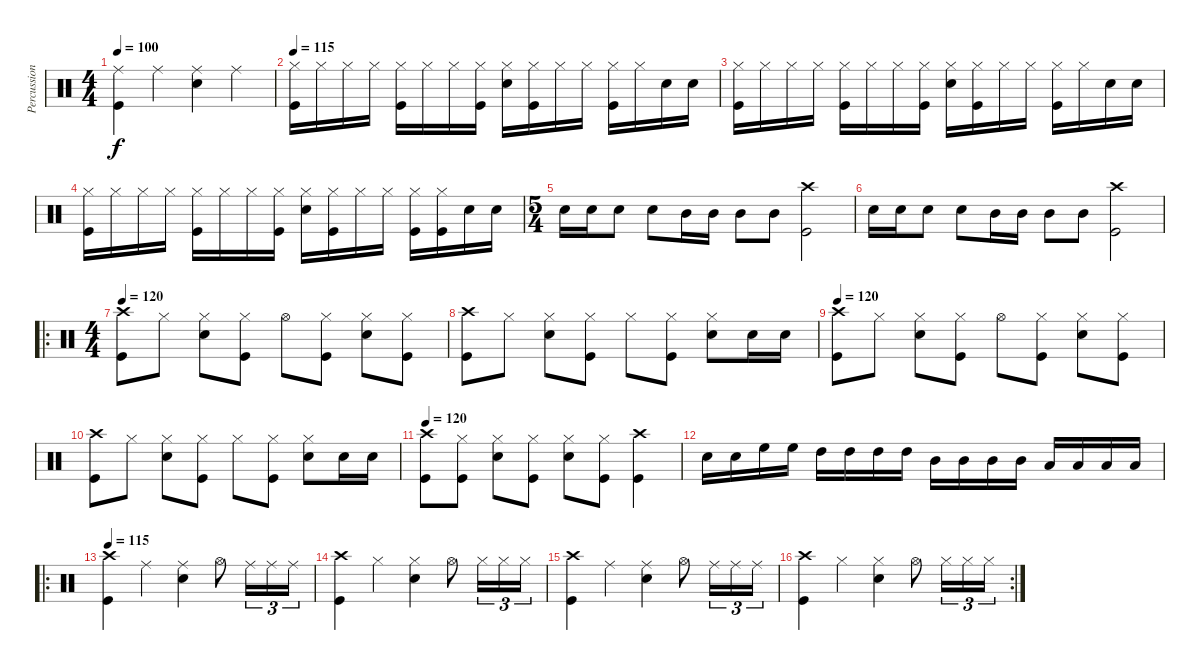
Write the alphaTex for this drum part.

\track ("Percussion" "Percussion") {instrument percussion}
\staff {score}
\articulation defaults
\ts (4 4)
\tempo 100
\clef neutral
\ks c
("Ride (middle)" "Kick (hit)").4{dy f} "Ride (middle)".4 ("Ride (middle)" "Snare (hit) 2").4 "Ride (middle)".4 |
\tempo 115
("Hi-Hat (closed)" "Kick (hit)").16 "Hi-Hat (closed)".16 "Hi-Hat (closed)".16 "Hi-Hat (closed)".16 ("Hi-Hat (closed)" "Kick (hit)").16 "Hi-Hat (closed)".16 "Hi-Hat (closed)".16 ("Hi-Hat (closed)" "Kick (hit)").16 ("Hi-Hat (closed)" "Snare (hit) 2").16 ("Hi-Hat (closed)" "Kick (hit)").16 "Hi-Hat (closed)".16 "Hi-Hat (closed)".16 ("Hi-Hat (closed)" "Kick (hit)").16 "Hi-Hat (closed)".16 "Snare (hit) 2".16 "Snare (hit) 2".16 |
("Hi-Hat (closed)" "Kick (hit)").16 "Hi-Hat (closed)".16 "Hi-Hat (closed)".16 "Hi-Hat (closed)".16 ("Hi-Hat (closed)" "Kick (hit)").16 "Hi-Hat (closed)".16 "Hi-Hat (closed)".16 ("Hi-Hat (closed)" "Kick (hit)").16 ("Hi-Hat (closed)" "Snare (hit) 2").16 ("Hi-Hat (closed)" "Kick (hit)").16 "Hi-Hat (closed)".16 "Hi-Hat (closed)".16 ("Hi-Hat (closed)" "Kick (hit)").16 "Hi-Hat (closed)".16 "Snare (hit) 2".16 "Snare (hit) 2".16 |
("Hi-Hat (closed)" "Kick (hit)").16 "Hi-Hat (closed)".16 "Hi-Hat (closed)".16 "Hi-Hat (closed)".16 ("Hi-Hat (closed)" "Kick (hit)").16 "Hi-Hat (closed)".16 "Hi-Hat (closed)".16 ("Hi-Hat (closed)" "Kick (hit)").16 ("Hi-Hat (closed)" "Snare (hit) 2").16 ("Hi-Hat (closed)" "Kick (hit)").16 "Hi-Hat (closed)".16 "Hi-Hat (closed)".16 ("Hi-Hat (closed)" "Kick (hit)").16 ("Hi-Hat (closed)" "Kick (hit)").16 "Snare (hit) 2".16 "Snare (hit) 2".16 |
\ts (5 4)
"Snare (hit) 2".16 "Snare (hit) 2".16 "Snare (hit) 2".8 "Snare (hit) 2".8 "Mid Tom (hit)".16 "Mid Tom (hit)".16 "Mid Tom (hit)".8 "Mid Tom (hit)".8 ("Crash high (hit)" "Kick (hit)").2 |
"Snare (hit) 2".16 "Snare (hit) 2".16 "Snare (hit) 2".8 "Snare (hit) 2".8 "Mid Tom (hit)".16 "Mid Tom (hit)".16 "Mid Tom (hit)".8 "Mid Tom (hit)".8 ("Crash high (hit)" "Kick (hit)").2 |
\ro
\ts (4 4)
\tempo 120
("Crash high (hit)" "Kick (hit)").8 "Hi-Hat (closed)".8 ("Hi-Hat (closed)" "Snare (hit) 2").8 ("Hi-Hat (closed)" "Kick (hit)").8 "Hi-Hat (open)".8 ("Hi-Hat (closed)" "Kick (hit)").8 ("Hi-Hat (closed)" "Snare (hit) 2").8 ("Hi-Hat (closed)" "Kick (hit)").8 |
("Crash high (hit)" "Kick (hit)").8 "Hi-Hat (closed)".8 ("Hi-Hat (closed)" "Snare (hit) 2").8 ("Hi-Hat (closed)" "Kick (hit)").8 "Hi-Hat (closed)".8 ("Hi-Hat (closed)" "Kick (hit)").8 ("Hi-Hat (closed)" "Snare (hit) 2").8 "Snare (hit) 2".16 "Snare (hit) 2".16 |
\tempo 120
("Crash high (hit)" "Kick (hit)").8 "Hi-Hat (closed)".8 ("Hi-Hat (closed)" "Snare (hit) 2").8 ("Hi-Hat (closed)" "Kick (hit)").8 "Hi-Hat (open)".8 ("Hi-Hat (closed)" "Kick (hit)").8 ("Hi-Hat (closed)" "Snare (hit) 2").8 ("Hi-Hat (closed)" "Kick (hit)").8 |
("Crash high (hit)" "Kick (hit)").8 "Hi-Hat (closed)".8 ("Hi-Hat (closed)" "Snare (hit) 2").8 ("Hi-Hat (closed)" "Kick (hit)").8 "Hi-Hat (closed)".8 ("Hi-Hat (closed)" "Kick (hit)").8 ("Hi-Hat (closed)" "Snare (hit) 2").8 "Snare (hit) 2".16 "Snare (hit) 2".16 |
\tempo 120
("Crash high (hit)" "Kick (hit)").8 ("Hi-Hat (closed)" "Kick (hit)").8 ("Hi-Hat (closed)" "Snare (hit) 2").8 ("Hi-Hat (closed)" "Kick (hit)").8 ("Hi-Hat (closed)" "Snare (hit) 2").8 ("Hi-Hat (closed)" "Kick (hit)").8 ("Crash high (hit)" "Kick (hit)").4 |
"Snare (hit) 2".16 "Snare (hit) 2".16 "High Floor Tom (hit)".16 "High Floor Tom (hit)".16 "High Tom (hit)".16 "High Tom (hit)".16 "High Tom (hit)".16 "High Tom (hit)".16 "Mid Tom (hit)".16 "Mid Tom (hit)".16 "Mid Tom (hit)".16 "Mid Tom (hit)".16 "Low Tom (hit)".16 "Low Tom (hit)".16 "Low Tom (hit)".16 "Low Tom (hit)".16 |
\ro
\tempo 115
("Crash high (hit)" "Kick (hit)").4 "Ride (middle)".4 ("Ride (middle)" "Snare (hit) 2").4 "Hi-Hat (open)".8 "Ride (middle)".16{tu (3 2)} "Ride (middle)".16{tu (3 2)} "Ride (middle)".16{tu (3 2)} |
("Crash high (hit)" "Kick (hit)").4 "Hi-Hat (closed)".4 ("Hi-Hat (closed)" "Snare (hit) 2").4 "Hi-Hat (open)".8 "Hi-Hat (closed)".16{tu (3 2)} "Hi-Hat (closed)".16{tu (3 2)} "Hi-Hat (closed)".16{tu (3 2)} |
("Crash high (hit)" "Kick (hit)").4 "Ride (middle)".4 ("Ride (middle)" "Snare (hit) 2").4 "Hi-Hat (open)".8 "Ride (middle)".16{tu (3 2)} "Ride (middle)".16{tu (3 2)} "Ride (middle)".16{tu (3 2)} |
\rc 2
("Crash high (hit)" "Kick (hit)").4 "Hi-Hat (closed)".4 ("Hi-Hat (closed)" "Snare (hit) 2").4 "Hi-Hat (open)".8 "Hi-Hat (closed)".16{tu (3 2)} "Hi-Hat (closed)".16{tu (3 2)} "Hi-Hat (closed)".16{tu (3 2)}
